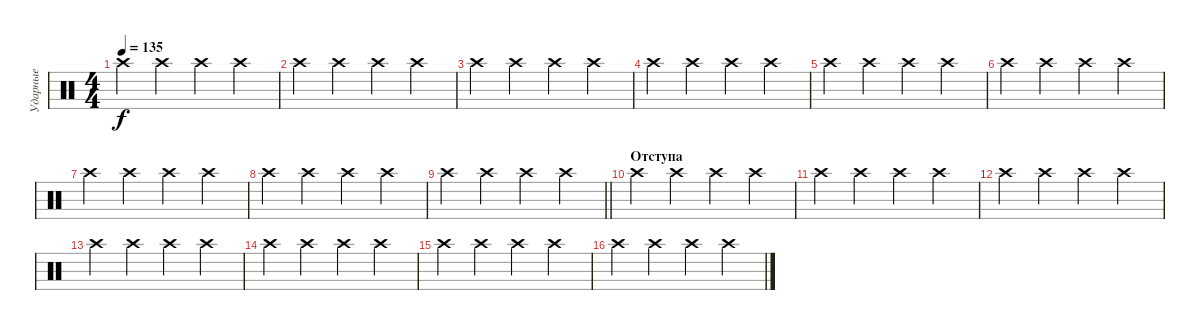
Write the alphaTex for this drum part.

\track ("Ударные" "Ударные") {instrument percussion}
\staff {score}
\articulation defaults
\ts (4 4)
\tempo 135
\clef neutral
\ks c "Crash high (hit)".4{dy f} "Crash high (hit)".4 "Crash high (hit)".4 "Crash high (hit)".4
|
"Crash high (hit)".4 "Crash high (hit)".4 "Crash high (hit)".4 "Crash high (hit)".4 |
"Crash high (hit)".4 "Crash high (hit)".4 "Crash high (hit)".4 "Crash high (hit)".4 |
"Crash high (hit)".4 "Crash high (hit)".4 "Crash high (hit)".4 "Crash high (hit)".4 |
"Crash high (hit)".4 "Crash high (hit)".4 "Crash high (hit)".4 "Crash high (hit)".4 |
"Crash high (hit)".4 "Crash high (hit)".4 "Crash high (hit)".4 "Crash high (hit)".4 |
"Crash high (hit)".4 "Crash high (hit)".4 "Crash high (hit)".4 "Crash high (hit)".4 |
"Crash high (hit)".4 "Crash high (hit)".4 "Crash high (hit)".4 "Crash high (hit)".4 |
\barLineRight lightlight "Crash high (hit)".4 "Crash high (hit)".4 "Crash high (hit)".4 "Crash high (hit)".4
|
\section ("" "Отступа")
"Crash high (hit)".4 "Crash high (hit)".4 "Crash high (hit)".4 "Crash high (hit)".4 |
"Crash high (hit)".4 "Crash high (hit)".4 "Crash high (hit)".4 "Crash high (hit)".4 |
"Crash high (hit)".4 "Crash high (hit)".4 "Crash high (hit)".4 "Crash high (hit)".4 |
"Crash high (hit)".4 "Crash high (hit)".4 "Crash high (hit)".4 "Crash high (hit)".4 |
"Crash high (hit)".4 "Crash high (hit)".4 "Crash high (hit)".4 "Crash high (hit)".4 |
"Crash high (hit)".4 "Crash high (hit)".4 "Crash high (hit)".4 "Crash high (hit)".4 |
"Crash high (hit)".4 "Crash high (hit)".4 "Crash high (hit)".4 "Crash high (hit)".4
